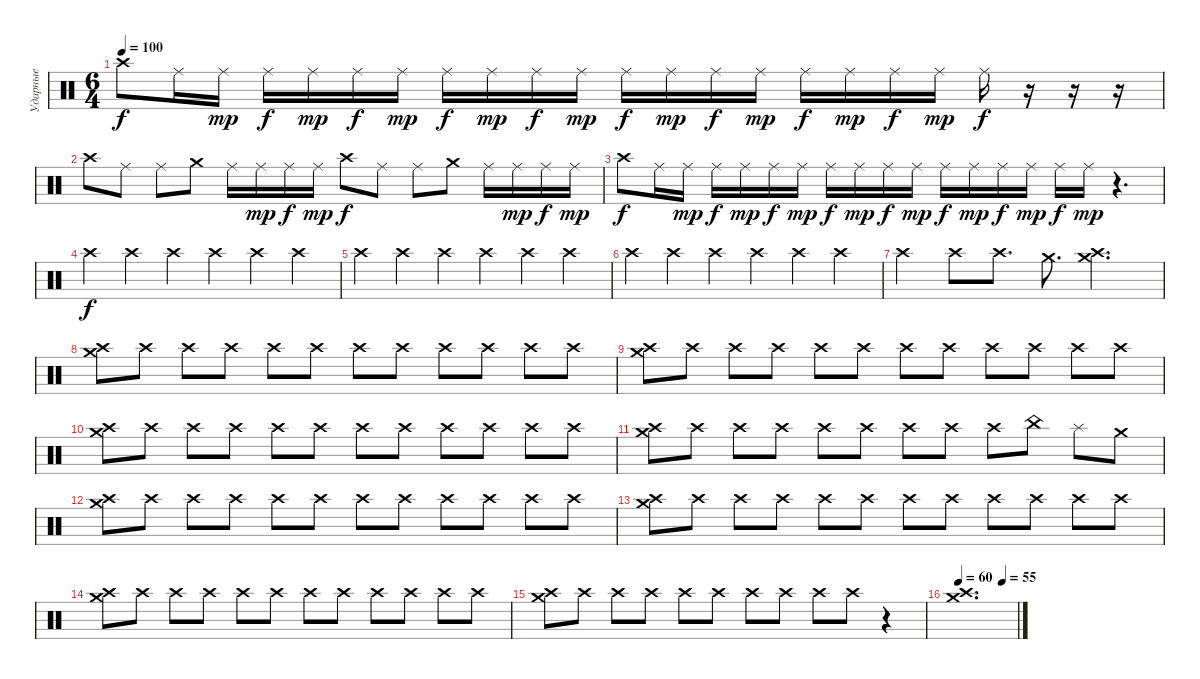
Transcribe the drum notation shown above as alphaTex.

\track ("Ударные" "Ударные") {instrument percussion}
\staff {score}
\articulation defaults
\ts (6 4)
\tempo 100
\clef neutral
\ks c "Crash high (hit)".8{dy f} "Ride (middle)".16 "Ride (middle)".16{dy mp} "Ride (middle)".16{dy f} "Ride (middle)".16{dy mp} "Ride (middle)".16{dy f} "Ride (middle)".16{dy mp} "Ride (middle)".16{dy f} "Ride (middle)".16{dy mp} "Ride (middle)".16{dy f} "Ride (middle)".16{dy mp} "Ride (middle)".16{dy f} "Ride (middle)".16{dy mp} "Ride (middle)".16{dy f} "Ride (middle)".16{dy mp} "Ride (middle)".16{dy f} "Ride (middle)".16{dy mp} "Ride (middle)".16{dy f} "Ride (middle)".16{dy mp} "Ride (middle)".16{dy f}
r.16 r.16 r.16 |
"Crash high (hit)".8 "Ride (middle)".8 "Ride (middle)".8 "Crash medium (hit)".8 "Ride (middle)".16 "Ride (middle)".16{dy mp} "Ride (middle)".16{dy f} "Ride (middle)".16{dy mp} "Crash high (hit)".8{dy f} "Ride (middle)".8 "Ride (middle)".8 "Crash medium (hit)".8 "Ride (middle)".16 "Ride (middle)".16{dy mp} "Ride (middle)".16{dy f} "Ride (middle)".16{dy mp} |
"Crash high (hit)".8{dy f} "Ride (middle)".16 "Ride (middle)".16{dy mp} "Ride (middle)".16{dy f} "Ride (middle)".16{dy mp} "Ride (middle)".16{dy f} "Ride (middle)".16{dy mp} "Ride (middle)".16{dy f} "Ride (middle)".16{dy mp} "Ride (middle)".16{dy f} "Ride (middle)".16{dy mp} "Ride (middle)".16{dy f} "Ride (middle)".16{dy mp} "Ride (middle)".16{dy f} "Ride (middle)".16{dy mp} "Ride (middle)".16{dy f} "Ride (middle)".16{dy mp} r.4{d} |
"Crash high (hit)".4{dy f} "Crash high (hit)".4 "Crash high (hit)".4 "Crash high (hit)".4 "Crash high (hit)".4 "Crash high (hit)".4 |
"Crash high (hit)".4 "Crash high (hit)".4 "Crash high (hit)".4 "Crash high (hit)".4 "Crash high (hit)".4 "Crash high (hit)".4 |
"Crash high (hit)".4 "Crash high (hit)".4 "Crash high (hit)".4 "Crash high (hit)".4 "Crash high (hit)".4 "Crash high (hit)".4 |
"Crash high (hit)".4 "Crash high (hit)".8 "Crash high (hit)".8{d} "Crash medium (hit)".8{d} ("Crash high (hit)" "Crash medium (hit)").2{d} |
("Crash high (hit)" "Crash medium (hit)").8 "Crash high (hit)".8 "Crash high (hit)".8 "Crash high (hit)".8 "Crash high (hit)".8 "Crash high (hit)".8 "Crash high (hit)".8 "Crash high (hit)".8 "Crash high (hit)".8 "Crash high (hit)".8 "Crash high (hit)".8 "Crash high (hit)".8 |
("Crash high (hit)" "Crash medium (hit)").8 "Crash high (hit)".8 "Crash high (hit)".8 "Crash high (hit)".8 "Crash high (hit)".8 "Crash high (hit)".8 "Crash high (hit)".8 "Crash high (hit)".8 "Crash high (hit)".8 "Crash high (hit)".8 "Crash high (hit)".8 "Crash high (hit)".8 |
("Crash high (hit)" "Crash medium (hit)").8 "Crash high (hit)".8 "Crash high (hit)".8 "Crash high (hit)".8 "Crash high (hit)".8 "Crash high (hit)".8 "Crash high (hit)".8 "Crash high (hit)".8 "Crash high (hit)".8 "Crash high (hit)".8 "Crash high (hit)".8 "Crash high (hit)".8 |
("Crash high (hit)" "Crash medium (hit)").8 "Crash high (hit)".8 "Crash high (hit)".8 "Crash high (hit)".8 "Crash high (hit)".8 "Crash high (hit)".8 "Crash high (hit)".8 "Crash high (hit)".8 "Crash high (hit)".8 "China (hit)".8 "Splash (hit)".8 "Crash medium (hit)".8 |
("Crash high (hit)" "Crash medium (hit)").8 "Crash high (hit)".8 "Crash high (hit)".8 "Crash high (hit)".8 "Crash high (hit)".8 "Crash high (hit)".8 "Crash high (hit)".8 "Crash high (hit)".8 "Crash high (hit)".8 "Crash high (hit)".8 "Crash high (hit)".8 "Crash high (hit)".8 |
("Crash high (hit)" "Crash medium (hit)").8 "Crash high (hit)".8 "Crash high (hit)".8 "Crash high (hit)".8 "Crash high (hit)".8 "Crash high (hit)".8 "Crash high (hit)".8 "Crash high (hit)".8 "Crash high (hit)".8 "Crash high (hit)".8 "Crash high (hit)".8 "Crash high (hit)".8 |
("Crash high (hit)" "Crash medium (hit)").8 "Crash high (hit)".8 "Crash high (hit)".8 "Crash high (hit)".8 "Crash high (hit)".8 "Crash high (hit)".8 "Crash high (hit)".8 "Crash high (hit)".8 "Crash high (hit)".8 "Crash high (hit)".8 "Crash high (hit)".8 "Crash high (hit)".8 |
("Crash high (hit)" "Crash medium (hit)").8 "Crash high (hit)".8 "Crash high (hit)".8 "Crash high (hit)".8 "Crash high (hit)".8 "Crash high (hit)".8 "Crash high (hit)".8 "Crash high (hit)".8 "Crash high (hit)".8 "Crash high (hit)".8 r.4 |
\tempo 60
\tempo (55 0.75)
("Crash high (hit)" "Crash medium (hit)").1{d}
